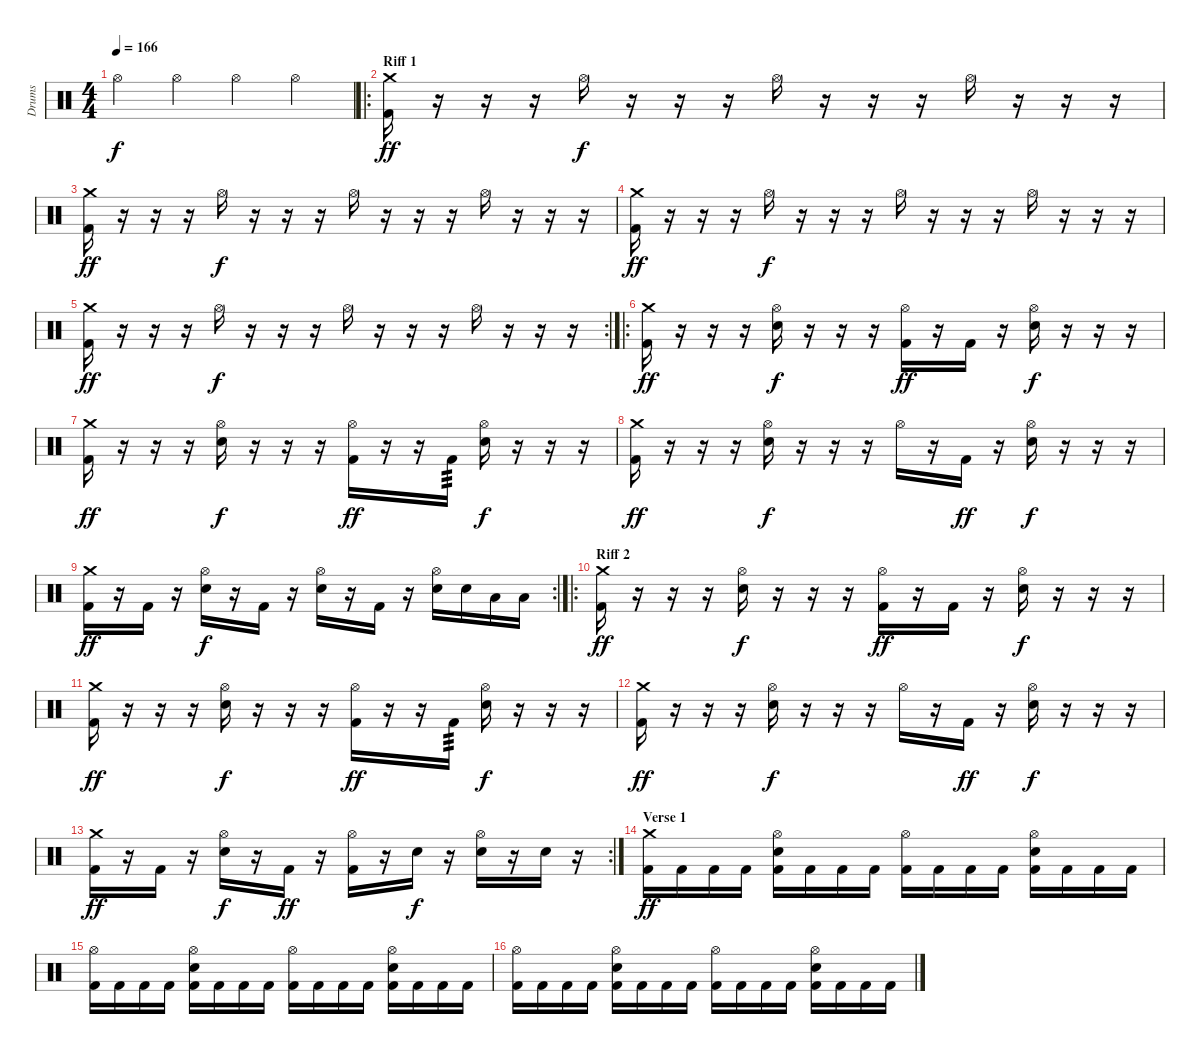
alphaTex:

\track ("Drums" "Drums") {instrument percussion}
\staff {score}
\articulation defaults
\ts (4 4)
\tempo 166
\clef neutral
\ks c "Hi-Hat (open)".4{dy f} "Hi-Hat (open)".4 "Hi-Hat (open)".4 "Hi-Hat (open)".4
|
\ro
\section ("" "Riff 1")
("Crash medium (hit)" "Kick (hit) 2").16{dy ff} r.16 r.16 r.16 "Hi-Hat (open)".16{dy f} r.16 r.16 r.16 "Hi-Hat (open)".16 r.16 r.16 r.16 "Hi-Hat (open)".16 r.16 r.16 r.16 |
("Crash medium (hit)" "Kick (hit) 2").16{dy ff} r.16 r.16 r.16 "Hi-Hat (open)".16{dy f} r.16 r.16 r.16 "Hi-Hat (open)".16 r.16 r.16 r.16 "Hi-Hat (open)".16 r.16 r.16 r.16 |
("Crash medium (hit)" "Kick (hit) 2").16{dy ff} r.16 r.16 r.16 "Hi-Hat (open)".16{dy f} r.16 r.16 r.16 "Hi-Hat (open)".16 r.16 r.16 r.16 "Hi-Hat (open)".16 r.16 r.16 r.16 |
\rc 2
("Crash medium (hit)" "Kick (hit) 2").16{dy ff} r.16 r.16 r.16 "Hi-Hat (open)".16{dy f} r.16 r.16 r.16 "Hi-Hat (open)".16 r.16 r.16 r.16 "Hi-Hat (open)".16 r.16 r.16 r.16 |
\ro
("Crash medium (hit)" "Kick (hit) 2").16{dy ff} r.16 r.16 r.16 ("Hi-Hat (open)" "Electric Snare (hit)").16{dy f} r.16 r.16 r.16 ("Hi-Hat (open)" "Kick (hit) 2").16{dy ff} r.16 "Kick (hit) 2".16 r.16 ("Hi-Hat (open)" "Electric Snare (hit)").16{dy f} r.16 r.16 r.16 |
("Crash medium (hit)" "Kick (hit) 2").16{dy ff} r.16 r.16 r.16 ("Hi-Hat (open)" "Electric Snare (hit)").16{dy f} r.16 r.16 r.16 ("Hi-Hat (open)" "Kick (hit) 2").16{dy ff} r.16 r.16 "Kick (hit) 2".16{tp 3} ("Hi-Hat (open)" "Electric Snare (hit)").16{dy f} r.16 r.16 r.16 |
("Crash medium (hit)" "Kick (hit) 2").16{dy ff} r.16 r.16 r.16 ("Hi-Hat (open)" "Electric Snare (hit)").16{dy f} r.16 r.16 r.16 "Hi-Hat (open)".16 r.16 "Kick (hit) 2".16{dy ff} r.16 ("Hi-Hat (open)" "Electric Snare (hit)").16{dy f} r.16 r.16 r.16 |
\rc 2
("Crash medium (hit)" "Kick (hit) 2").16{dy ff} r.16 "Kick (hit) 2".16 r.16 ("Hi-Hat (open)" "Electric Snare (hit)").16{dy f} r.16 "Kick (hit) 2".16 r.16 ("Hi-Hat (open)" "Electric Snare (hit)").16 r.16 "Kick (hit) 2".16 r.16 ("Hi-Hat (open)" "Electric Snare (hit)").16 "Electric Snare (hit)".16 "Low Tom (hit)".16 "Low Tom (hit)".16 |
\ro
\section ("" "Riff 2")
("Crash medium (hit)" "Kick (hit) 2").16{dy ff} r.16 r.16 r.16 ("Hi-Hat (open)" "Electric Snare (hit)").16{dy f} r.16 r.16 r.16 ("Hi-Hat (open)" "Kick (hit) 2").16{dy ff} r.16 "Kick (hit) 2".16 r.16 ("Hi-Hat (open)" "Electric Snare (hit)").16{dy f} r.16 r.16 r.16 |
("Crash medium (hit)" "Kick (hit) 2").16{dy ff} r.16 r.16 r.16 ("Hi-Hat (open)" "Electric Snare (hit)").16{dy f} r.16 r.16 r.16 ("Hi-Hat (open)" "Kick (hit) 2").16{dy ff} r.16 r.16 "Kick (hit) 2".16{tp 3} ("Hi-Hat (open)" "Electric Snare (hit)").16{dy f} r.16 r.16 r.16 |
("Crash medium (hit)" "Kick (hit) 2").16{dy ff} r.16 r.16 r.16 ("Hi-Hat (open)" "Electric Snare (hit)").16{dy f} r.16 r.16 r.16 "Hi-Hat (open)".16 r.16 "Kick (hit) 2".16{dy ff} r.16 ("Hi-Hat (open)" "Electric Snare (hit)").16{dy f} r.16 r.16 r.16 |
\rc 2
("Crash medium (hit)" "Kick (hit) 2").16{dy ff} r.16 "Kick (hit) 2".16 r.16 ("Hi-Hat (open)" "Electric Snare (hit)").16{dy f} r.16 "Kick (hit) 2".16{dy ff} r.16 ("Hi-Hat (open)" "Kick (hit) 2").16 r.16 "Electric Snare (hit)".16{dy f} r.16 ("Hi-Hat (open)" "Electric Snare (hit)").16 r.16 "Electric Snare (hit)".16 r.16 |
\section ("" "Verse 1")
("Crash medium (hit)" "Kick (hit) 2").16{dy ff} "Kick (hit) 2".16 "Kick (hit) 2".16 "Kick (hit) 2".16 ("Hi-Hat (open)" "Electric Snare (hit)" "Kick (hit) 2").16 "Kick (hit) 2".16 "Kick (hit) 2".16 "Kick (hit) 2".16 ("Hi-Hat (open)" "Kick (hit) 2").16 "Kick (hit) 2".16 "Kick (hit) 2".16 "Kick (hit) 2".16 ("Hi-Hat (open)" "Electric Snare (hit)" "Kick (hit) 2").16 "Kick (hit) 2".16 "Kick (hit) 2".16 "Kick (hit) 2".16 |
("Hi-Hat (open)" "Kick (hit) 2").16 "Kick (hit) 2".16 "Kick (hit) 2".16 "Kick (hit) 2".16 ("Hi-Hat (open)" "Electric Snare (hit)" "Kick (hit) 2").16 "Kick (hit) 2".16 "Kick (hit) 2".16 "Kick (hit) 2".16 ("Hi-Hat (open)" "Kick (hit) 2").16 "Kick (hit) 2".16 "Kick (hit) 2".16 "Kick (hit) 2".16 ("Hi-Hat (open)" "Electric Snare (hit)" "Kick (hit) 2").16 "Kick (hit) 2".16 "Kick (hit) 2".16 "Kick (hit) 2".16 |
("Hi-Hat (open)" "Kick (hit) 2").16 "Kick (hit) 2".16 "Kick (hit) 2".16 "Kick (hit) 2".16 ("Hi-Hat (open)" "Electric Snare (hit)" "Kick (hit) 2").16 "Kick (hit) 2".16 "Kick (hit) 2".16 "Kick (hit) 2".16 ("Hi-Hat (open)" "Kick (hit) 2").16 "Kick (hit) 2".16 "Kick (hit) 2".16 "Kick (hit) 2".16 ("Hi-Hat (open)" "Electric Snare (hit)" "Kick (hit) 2").16 "Kick (hit) 2".16 "Kick (hit) 2".16 "Kick (hit) 2".16
